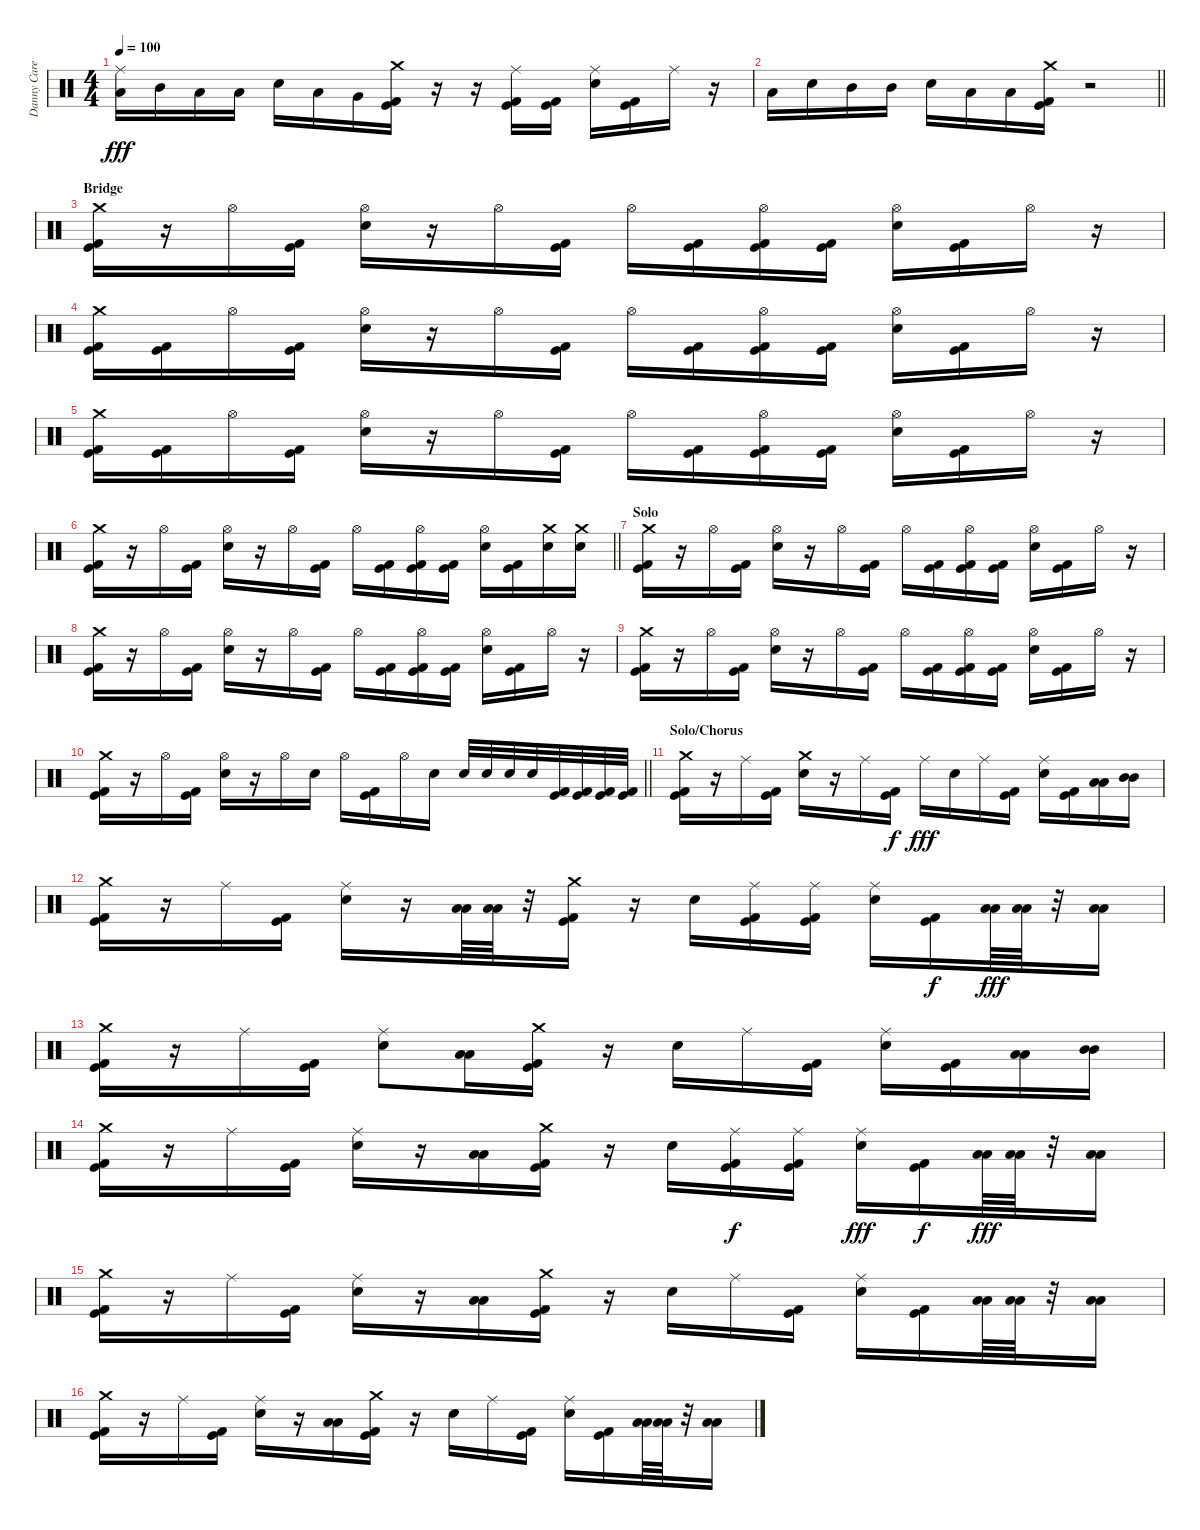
\track ("Danny Carey - Percussion" "Danny Care") {instrument percussion}
\staff {score}
\articulation defaults
\ts (4 4)
\tempo 100
\clef neutral
\ks c
("Ride (middle)" "Low Tom (hit)").16{dy fff} "Mid Tom (hit)".16 "Low Tom (hit)".16 "Low Tom (hit)".16 "Electric Snare (hit)".16 "Low Tom (hit)".16 "Very Low Tom (hit)".16 ("Crash medium (hit)" "Kick (hit)" "Kick (hit) 2").16 r.16 r.16 ("Ride (middle)" "Kick (hit)" "Kick (hit) 2").16 ("Kick (hit)" "Kick (hit) 2").16 ("Ride (middle)" "Electric Snare (hit)").16 ("Kick (hit)" "Kick (hit) 2").16 "Ride (middle)".16 r.16 |
\barLineRight lightlight "Low Tom (hit)".16 "Electric Snare (hit)".16 "Mid Tom (hit)".16 "Mid Tom (hit)".16 "Electric Snare (hit)".16 "Low Tom (hit)".16 "Low Tom (hit)".16
("Crash medium (hit)" "Kick (hit)" "Kick (hit) 2").16 r.2 |
\section ("" "Bridge")
("Crash medium (hit)" "Kick (hit)" "Kick (hit) 2").16 r.16 "Hi-Hat (open)".16 ("Kick (hit)" "Kick (hit) 2").16 ("Hi-Hat (open)" "Electric Snare (hit)").16 r.16 "Hi-Hat (open)".16 ("Kick (hit)" "Kick (hit) 2").16 "Hi-Hat (open)".16 ("Kick (hit)" "Kick (hit) 2").16 ("Hi-Hat (open)" "Kick (hit)" "Kick (hit) 2").16 ("Kick (hit)" "Kick (hit) 2").16 ("Hi-Hat (open)" "Electric Snare (hit)").16 ("Kick (hit)" "Kick (hit) 2").16 "Hi-Hat (open)".16 r.16 |
("Crash medium (hit)" "Kick (hit)" "Kick (hit) 2").16 ("Kick (hit)" "Kick (hit) 2").16 "Hi-Hat (open)".16 ("Kick (hit)" "Kick (hit) 2").16 ("Hi-Hat (open)" "Electric Snare (hit)").16 r.16 "Hi-Hat (open)".16 ("Kick (hit)" "Kick (hit) 2").16 "Hi-Hat (open)".16 ("Kick (hit)" "Kick (hit) 2").16 ("Hi-Hat (open)" "Kick (hit)" "Kick (hit) 2").16 ("Kick (hit)" "Kick (hit) 2").16 ("Hi-Hat (open)" "Electric Snare (hit)").16 ("Kick (hit)" "Kick (hit) 2").16 "Hi-Hat (open)".16 r.16 |
("Crash medium (hit)" "Kick (hit)" "Kick (hit) 2").16 ("Kick (hit)" "Kick (hit) 2").16 "Hi-Hat (open)".16 ("Kick (hit)" "Kick (hit) 2").16 ("Hi-Hat (open)" "Electric Snare (hit)").16 r.16 "Hi-Hat (open)".16 ("Kick (hit)" "Kick (hit) 2").16 "Hi-Hat (open)".16 ("Kick (hit)" "Kick (hit) 2").16 ("Hi-Hat (open)" "Kick (hit)" "Kick (hit) 2").16 ("Kick (hit)" "Kick (hit) 2").16 ("Hi-Hat (open)" "Electric Snare (hit)").16 ("Kick (hit)" "Kick (hit) 2").16 "Hi-Hat (open)".16 r.16 |
\barLineRight lightlight
("Crash medium (hit)" "Kick (hit)" "Kick (hit) 2").16 r.16 "Hi-Hat (open)".16 ("Kick (hit)" "Kick (hit) 2").16 ("Hi-Hat (open)" "Electric Snare (hit)").16 r.16 "Hi-Hat (open)".16 ("Kick (hit)" "Kick (hit) 2").16 "Hi-Hat (open)".16 ("Kick (hit)" "Kick (hit) 2").16 ("Hi-Hat (open)" "Kick (hit)" "Kick (hit) 2").16 ("Kick (hit)" "Kick (hit) 2").16 ("Hi-Hat (open)" "Electric Snare (hit)").16 ("Kick (hit)" "Kick (hit) 2").16 ("Crash medium (hit)" "Electric Snare (hit)").16 ("Crash medium (hit)" "Electric Snare (hit)").16 |
\section ("" "Solo")
("Crash medium (hit)" "Kick (hit)" "Kick (hit) 2").16 r.16 "Hi-Hat (open)".16 ("Kick (hit)" "Kick (hit) 2").16 ("Hi-Hat (open)" "Electric Snare (hit)").16 r.16 "Hi-Hat (open)".16 ("Kick (hit)" "Kick (hit) 2").16 "Hi-Hat (open)".16 ("Kick (hit)" "Kick (hit) 2").16 ("Hi-Hat (open)" "Kick (hit)" "Kick (hit) 2").16 ("Kick (hit)" "Kick (hit) 2").16 ("Hi-Hat (open)" "Electric Snare (hit)").16 ("Kick (hit)" "Kick (hit) 2").16 "Hi-Hat (open)".16 r.16 |
("Crash medium (hit)" "Kick (hit)" "Kick (hit) 2").16 r.16 "Hi-Hat (open)".16 ("Kick (hit)" "Kick (hit) 2").16 ("Hi-Hat (open)" "Electric Snare (hit)").16 r.16 "Hi-Hat (open)".16 ("Kick (hit)" "Kick (hit) 2").16 "Hi-Hat (open)".16 ("Kick (hit)" "Kick (hit) 2").16 ("Hi-Hat (open)" "Kick (hit)" "Kick (hit) 2").16 ("Kick (hit)" "Kick (hit) 2").16 ("Hi-Hat (open)" "Electric Snare (hit)").16 ("Kick (hit)" "Kick (hit) 2").16 "Hi-Hat (open)".16 r.16 |
("Crash medium (hit)" "Kick (hit)" "Kick (hit) 2").16 r.16 "Hi-Hat (open)".16 ("Kick (hit)" "Kick (hit) 2").16 ("Hi-Hat (open)" "Electric Snare (hit)").16 r.16 "Hi-Hat (open)".16 ("Kick (hit)" "Kick (hit) 2").16 "Hi-Hat (open)".16 ("Kick (hit)" "Kick (hit) 2").16 ("Hi-Hat (open)" "Kick (hit)" "Kick (hit) 2").16 ("Kick (hit)" "Kick (hit) 2").16 ("Hi-Hat (open)" "Electric Snare (hit)").16 ("Kick (hit)" "Kick (hit) 2").16 "Hi-Hat (open)".16 r.16 |
\barLineRight lightlight
("Crash medium (hit)" "Kick (hit)" "Kick (hit) 2").16 r.16 "Hi-Hat (open)".16 ("Kick (hit)" "Kick (hit) 2").16 ("Hi-Hat (open)" "Electric Snare (hit)").16 r.16 "Hi-Hat (open)".16 "Electric Snare (hit)".16 "Hi-Hat (open)".16 ("Kick (hit)" "Kick (hit) 2").16 "Hi-Hat (open)".16 "Electric Snare (hit)".16 "Electric Snare (hit)".32 "Electric Snare (hit)".32 "Electric Snare (hit)".32 "Electric Snare (hit)".32 ("Kick (hit)" "Kick (hit) 2").32 ("Kick (hit)" "Kick (hit) 2").32 ("Kick (hit)" "Kick (hit) 2").32 ("Kick (hit)" "Kick (hit) 2").32 |
\section ("" "Solo/Chorus")
("Crash medium (hit)" "Kick (hit)" "Kick (hit) 2").16 r.16 "Ride (middle)".16 ("Kick (hit)" "Kick (hit) 2").16 ("Crash medium (hit)" "Electric Snare (hit)").16 r.16 "Ride (middle)".16 ("Kick (hit)" "Kick (hit) 2").16{dy f} "Ride (middle)".16{dy fff} "Electric Snare (hit)".16 "Ride (middle)".16 ("Kick (hit)" "Kick (hit) 2").16 ("Ride (middle)" "Electric Snare (hit)").16 ("Kick (hit)" "Kick (hit) 2").16 ("Low Tom (hit)" "Low Tom (hit)").16 ("Mid Tom (hit)" "Mid Tom (hit)").16 |
("Crash medium (hit)" "Kick (hit)" "Kick (hit) 2").16 r.16 "Ride (middle)".16 ("Kick (hit)" "Kick (hit) 2").16 ("Ride (middle)" "Electric Snare (hit)").16 r.16 ("Low Tom (hit)" "Low Tom (hit)").64 ("Low Tom (hit)" "Low Tom (hit)").64 r.32 ("Crash medium (hit)" "Kick (hit)" "Kick (hit) 2").16 r.16 "Electric Snare (hit)".16 ("Ride (middle)" "Kick (hit)" "Kick (hit) 2").16 ("Ride (middle)" "Kick (hit)" "Kick (hit) 2").16 ("Ride (middle)" "Electric Snare (hit)").16 ("Kick (hit)" "Kick (hit) 2").16{dy f} ("Low Tom (hit)" "Low Tom (hit)").64{dy fff} ("Low Tom (hit)" "Low Tom (hit)").64 r.32 ("Low Tom (hit)" "Low Tom (hit)").16 |
("Crash medium (hit)" "Kick (hit)" "Kick (hit) 2").16 r.16 "Ride (middle)".16 ("Kick (hit)" "Kick (hit) 2").16 ("Ride (middle)" "Electric Snare (hit)").8 ("Low Tom (hit)" "Low Tom (hit)").16 ("Crash medium (hit)" "Kick (hit)" "Kick (hit) 2").16 r.16 "Electric Snare (hit)".16 "Ride (middle)".16 ("Kick (hit)" "Kick (hit) 2").16 ("Ride (middle)" "Electric Snare (hit)").16 ("Kick (hit)" "Kick (hit) 2").16 ("Low Tom (hit)" "Low Tom (hit)").16 ("Mid Tom (hit)" "Mid Tom (hit)").16 |
("Crash medium (hit)" "Kick (hit)" "Kick (hit) 2").16 r.16 "Ride (middle)".16 ("Kick (hit)" "Kick (hit) 2").16 ("Ride (middle)" "Electric Snare (hit)").16 r.16 ("Low Tom (hit)" "Low Tom (hit)").16 ("Crash medium (hit)" "Kick (hit)" "Kick (hit) 2").16 r.16 "Electric Snare (hit)".16 ("Ride (middle)" "Kick (hit)" "Kick (hit) 2").16{dy f} ("Ride (middle)" "Kick (hit)" "Kick (hit) 2").16 ("Ride (middle)" "Electric Snare (hit)").16{dy fff} ("Kick (hit)" "Kick (hit) 2").16{dy f} ("Low Tom (hit)" "Low Tom (hit)").64{dy fff} ("Low Tom (hit)" "Low Tom (hit)").64 r.32 ("Low Tom (hit)" "Low Tom (hit)").16 |
("Crash medium (hit)" "Kick (hit)" "Kick (hit) 2").16 r.16 "Ride (middle)".16 ("Kick (hit)" "Kick (hit) 2").16 ("Ride (middle)" "Electric Snare (hit)").16 r.16 ("Low Tom (hit)" "Low Tom (hit)").16 ("Crash medium (hit)" "Kick (hit)" "Kick (hit) 2").16 r.16 "Electric Snare (hit)".16 "Ride (middle)".16 ("Kick (hit)" "Kick (hit) 2").16 ("Ride (middle)" "Electric Snare (hit)").16 ("Kick (hit)" "Kick (hit) 2").16 ("Low Tom (hit)" "Low Tom (hit)").64 ("Low Tom (hit)" "Low Tom (hit)").64 r.32 ("Low Tom (hit)" "Low Tom (hit)").16 |
("Crash medium (hit)" "Kick (hit)" "Kick (hit) 2").16 r.16 "Ride (middle)".16 ("Kick (hit)" "Kick (hit) 2").16 ("Ride (middle)" "Electric Snare (hit)").16 r.16 ("Low Tom (hit)" "Low Tom (hit)").16 ("Crash medium (hit)" "Kick (hit)" "Kick (hit) 2").16 r.16 "Electric Snare (hit)".16 "Ride (middle)".16 ("Kick (hit)" "Kick (hit) 2").16 ("Ride (middle)" "Electric Snare (hit)").16 ("Kick (hit)" "Kick (hit) 2").16 ("Low Tom (hit)" "Low Tom (hit)").64 ("Low Tom (hit)" "Low Tom (hit)").64 r.32 ("Low Tom (hit)" "Low Tom (hit)").16
